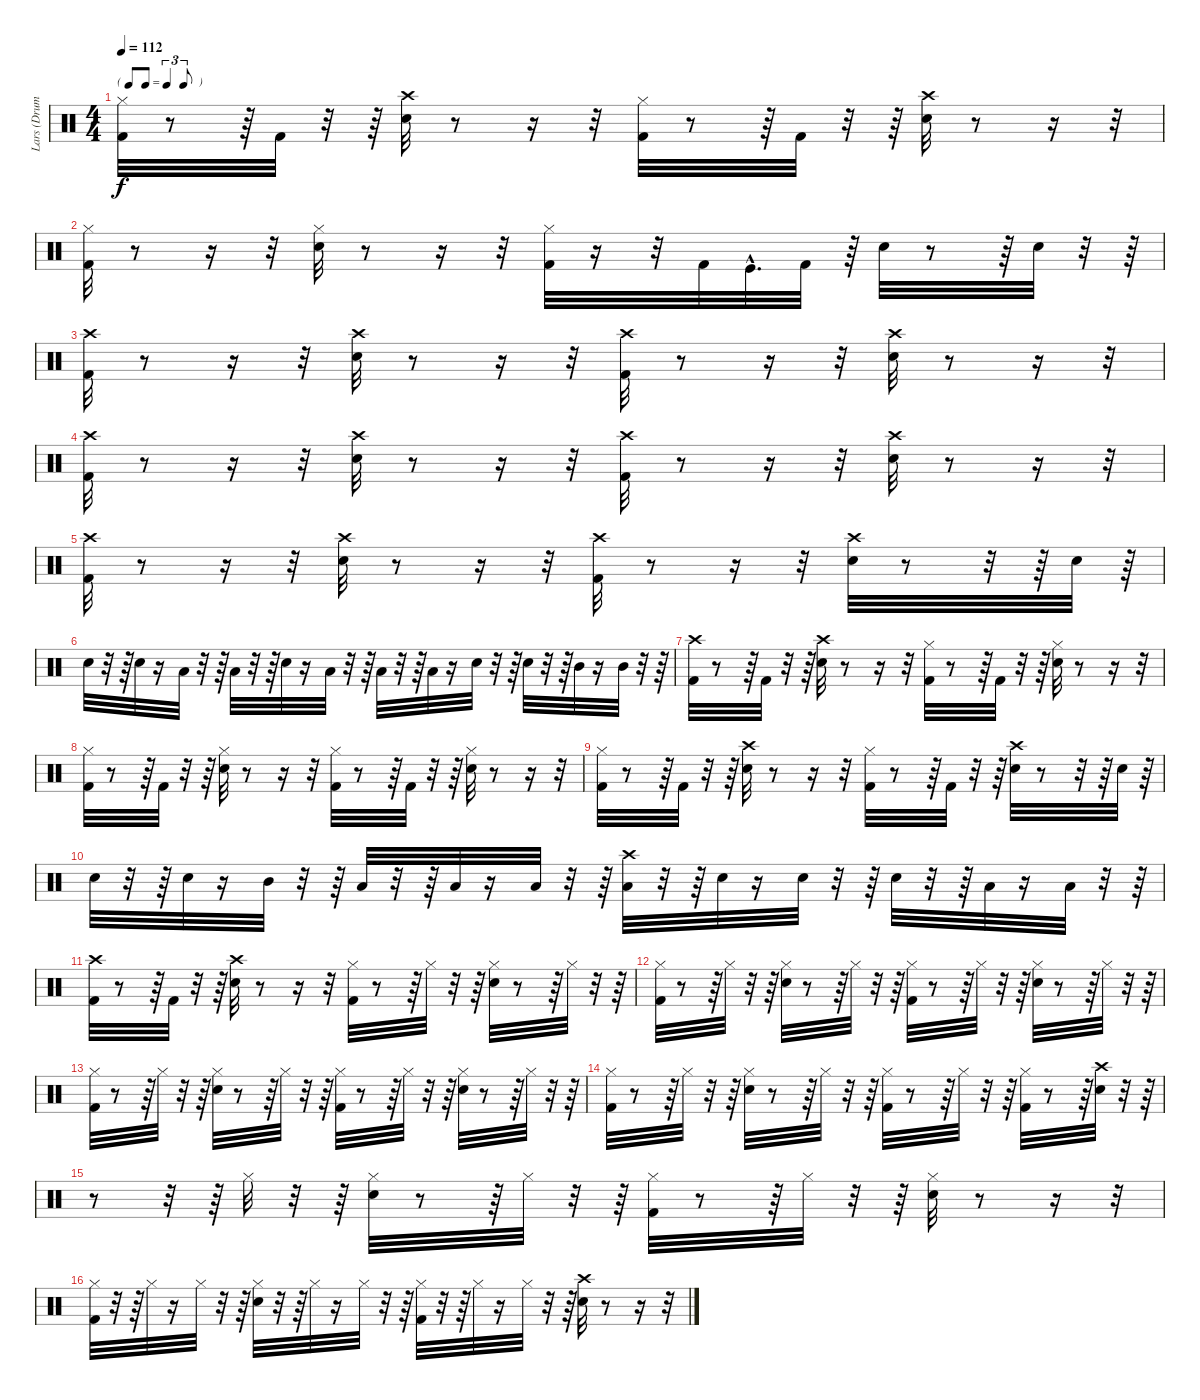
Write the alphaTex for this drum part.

\track ("Lars (Drums)" "Lars (Drum") {instrument percussion}
\staff {score}
\articulation defaults
\ts (4 4)
\tf triplet8th
\tempo 112
\clef neutral
\ks c
("Hi-Hat (closed)" "Kick (hit) 2").32{dy f} r.8 r.64 "Kick (hit) 2".32 r.32 r.64 ("Crash high (hit)" "Snare (hit) 2").32 r.8 r.16 r.32 ("Hi-Hat (closed)" "Kick (hit) 2").32 r.8 r.64 "Kick (hit) 2".32 r.32 r.64 ("Snare (hit) 2" "Crash high (hit)").32 r.8 r.16 r.32 |
("Hi-Hat (closed)" "Kick (hit) 2").32 r.8 r.16 r.32 ("Snare (hit) 2" "Hi-Hat (closed)").32 r.8 r.16 r.32 ("Hi-Hat (closed)" "Kick (hit) 2").32 r.16 r.32 "Kick (hit) 2".32 "Kick (hit)"{hac}.32{d} "Kick (hit) 2".32 r.64 "Snare (hit) 2".32 r.8 r.64 "Snare (hit) 2".32 r.32 r.64 |
("Crash high (hit)" "Kick (hit) 2").32 r.8 r.16 r.32 ("Snare (hit) 2" "Crash high (hit)").32 r.8 r.16 r.32 ("Kick (hit) 2" "Crash high (hit)").32 r.8 r.16 r.32 ("Snare (hit) 2" "Crash high (hit)").32 r.8 r.16 r.32 |
("Crash high (hit)" "Kick (hit) 2").32 r.8 r.16 r.32 ("Snare (hit) 2" "Crash high (hit)").32 r.8 r.16 r.32 ("Crash high (hit)" "Kick (hit) 2").32 r.8 r.16 r.32 ("Snare (hit) 2" "Crash high (hit)").32 r.8 r.16 r.32 |
("Crash high (hit)" "Kick (hit) 2").32 r.8 r.16 r.32 ("Snare (hit) 2" "Crash high (hit)").32 r.8 r.16 r.32 ("Crash high (hit)" "Kick (hit) 2").32 r.8 r.16 r.32 ("Snare (hit) 2" "Crash high (hit)").32 r.8 r.32 r.64 "Snare (hit) 2".32 r.64 |
"Snare (hit) 2".32 r.32 r.64 "Snare (hit) 2".32 r.16 "Low Tom (hit)".32 r.32 r.64 "Low Tom (hit)".32 r.32 r.64 "Snare (hit) 2".32 r.16 "Low Tom (hit)".32 r.32 r.64 "Low Tom (hit)".32 r.32 r.64 "Low Tom (hit)".32 r.16 "Snare (hit) 2".32 r.32 r.64 "Snare (hit) 2".32 r.32 r.64 "Mid Tom (hit)".32 r.16 "Mid Tom (hit)".32 r.32 r.64 |
("Crash high (hit)" "Kick (hit) 2").32 r.8 r.64 "Kick (hit) 2".32 r.32 r.64 ("Snare (hit) 2" "Crash high (hit)").32 r.8 r.16 r.32 ("Hi-Hat (closed)" "Kick (hit) 2").32 r.8 r.64 "Kick (hit) 2".32 r.32 r.64 ("Snare (hit) 2" "Hi-Hat (closed)").32 r.8 r.16 r.32 |
("Kick (hit) 2" "Hi-Hat (closed)").32 r.8 r.64 "Kick (hit) 2".32 r.32 r.64 ("Hi-Hat (closed)" "Snare (hit) 2").32 r.8 r.16 r.32 ("Kick (hit) 2" "Hi-Hat (closed)").32 r.8 r.64 "Kick (hit) 2".32 r.32 r.64 ("Hi-Hat (closed)" "Snare (hit) 2").32 r.8 r.16 r.32 |
("Hi-Hat (closed)" "Kick (hit) 2").32 r.8 r.64 "Kick (hit) 2".32 r.32 r.64 ("Snare (hit) 2" "Crash high (hit)").32 r.8 r.16 r.32 ("Hi-Hat (closed)" "Kick (hit) 2").32 r.8 r.64 "Kick (hit) 2".32 r.32 r.64 ("Crash high (hit)" "Snare (hit) 2").32 r.8 r.32 r.64 "Snare (hit) 2".32 r.64 |
"Snare (hit) 2".32 r.32 r.64 "Snare (hit) 2".32 r.16 "Mid Tom (hit)".32 r.32 r.64 "Low Floor Tom (hit)".32 r.32 r.64 "Low Floor Tom (hit)".32 r.16 "Low Floor Tom (hit)".32 r.32 r.64 ("Crash high (hit)" "Low Floor Tom (hit)").32 r.32 r.64 "Snare (hit) 2".32 r.16 "Snare (hit) 2".32 r.32 r.64 "Snare (hit) 2".32 r.32 r.64 "Low Tom (hit)".32 r.16 "Low Tom (hit)".32 r.32 r.64 |
("Crash high (hit)" "Kick (hit) 2").32 r.8 r.64 "Kick (hit) 2".32 r.32 r.64 ("Snare (hit) 2" "Crash high (hit)").32 r.8 r.16 r.32 ("Hi-Hat (closed)" "Kick (hit) 2").32 r.8 r.64 "Hi-Hat (closed)".32 r.32 r.64 ("Snare (hit) 2" "Hi-Hat (closed)").32 r.8 r.64 "Hi-Hat (closed)".32 r.32 r.64 |
("Hi-Hat (closed)" "Kick (hit) 2").32 r.8 r.64 "Hi-Hat (closed)".32 r.32 r.64 ("Snare (hit) 2" "Hi-Hat (closed)").32 r.8 r.64 "Hi-Hat (closed)".32 r.32 r.64 ("Hi-Hat (closed)" "Kick (hit) 2").32 r.8 r.64 "Hi-Hat (closed)".32 r.32 r.64 ("Hi-Hat (closed)" "Snare (hit) 2").32 r.8 r.64 "Hi-Hat (closed)".32 r.32 r.64 |
("Hi-Hat (closed)" "Kick (hit) 2").32 r.8 r.64 "Hi-Hat (closed)".32 r.32 r.64 ("Snare (hit) 2" "Hi-Hat (closed)").32 r.8 r.64 "Hi-Hat (closed)".32 r.32 r.64 ("Hi-Hat (closed)" "Kick (hit) 2").32 r.8 r.64 "Hi-Hat (closed)".32 r.32 r.64 ("Hi-Hat (closed)" "Snare (hit) 2").32 r.8 r.64 "Hi-Hat (closed)".32 r.32 r.64 |
("Kick (hit) 2" "Hi-Hat (closed)").32 r.8 r.64 "Hi-Hat (closed)".32 r.32 r.64 ("Snare (hit) 2" "Hi-Hat (closed)").32 r.8 r.64 "Hi-Hat (closed)".32 r.32 r.64 ("Kick (hit) 2" "Hi-Hat (closed)").32 r.8 r.64 "Hi-Hat (closed)".32 r.32 r.64 ("Kick (hit) 2" "Hi-Hat (closed)").32 r.8 r.64 ("Snare (hit) 2" "Crash high (hit)").32 r.32 r.64 |
r.8 r.32 r.64 "Hi-Hat (closed)".32 r.32 r.64 ("Snare (hit) 2" "Hi-Hat (closed)").32 r.8 r.64 "Hi-Hat (closed)".32 r.32 r.64 ("Kick (hit) 2" "Hi-Hat (closed)").32 r.8 r.64 "Hi-Hat (closed)".32 r.32 r.64 ("Snare (hit) 2" "Hi-Hat (closed)").32 r.8 r.16 r.32 |
("Hi-Hat (closed)" "Kick (hit) 2").32 r.32 r.64 "Hi-Hat (closed)".32 r.16 "Hi-Hat (closed)".32 r.32 r.64 ("Hi-Hat (closed)" "Snare (hit) 2").32 r.32 r.64 "Hi-Hat (closed)".32 r.16 "Hi-Hat (closed)".32 r.32 r.64 ("Hi-Hat (closed)" "Kick (hit) 2").32 r.32 r.64 "Hi-Hat (closed)".32 r.16 "Hi-Hat (closed)".32 r.32 r.64 ("Crash high (hit)" "Snare (hit) 2").32 r.8 r.16 r.32
